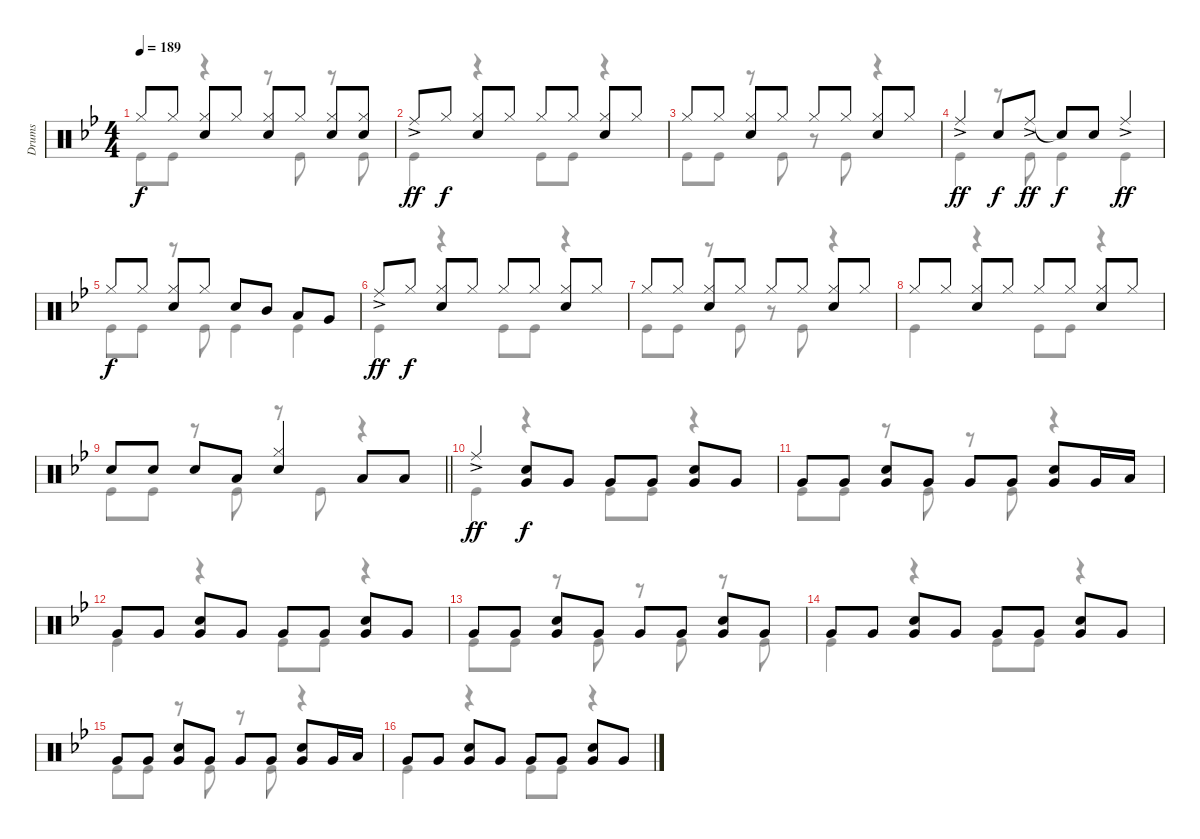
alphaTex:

\track ("Drums" "Drums") {instrument percussion}
\staff {score}
\articulation defaults
\voice
\ts (4 4)
\tempo 189
\clef neutral
\ks bb "Hi-Hat (closed)".8{dy f} "Hi-Hat (closed)".8
("Hi-Hat (closed)" "Snare (hit) 2").8 "Hi-Hat (closed)".8 ("Hi-Hat (closed)" "Snare (hit) 2").8 "Hi-Hat (closed)".8 ("Hi-Hat (closed)" "Snare (hit) 2").8 ("Hi-Hat (closed)" "Snare (hit) 2").8 |
"Ride (middle)"{ac}.8{dy ff} "Hi-Hat (closed)".8{dy f} ("Hi-Hat (closed)" "Snare (hit) 2").8 "Hi-Hat (closed)".8 "Hi-Hat (closed)".8 "Hi-Hat (closed)".8 ("Hi-Hat (closed)" "Snare (hit) 2").8 "Hi-Hat (closed)".8 |
"Hi-Hat (closed)".8 "Hi-Hat (closed)".8 ("Hi-Hat (closed)" "Snare (hit) 2").8 "Hi-Hat (closed)".8 "Hi-Hat (closed)".8 "Hi-Hat (closed)".8 ("Hi-Hat (closed)" "Snare (hit) 2").8 "Hi-Hat (closed)".8 |
"Ride (middle)"{ac}.4{dy ff} "Snare (hit) 2".8{dy f} "Ride (middle)"{ac}.8{dy ff} "Snare (hit)"{t}.8{dy f} "Snare (hit) 2".8 "Ride (middle)"{ac}.4{dy ff} |
"Hi-Hat (closed)".8{dy f} "Hi-Hat (closed)".8 ("Hi-Hat (closed)" "Snare (hit) 2").8 "Hi-Hat (closed)".8 "Snare (hit) 2".8 "Mid Tom (hit)".8 "Low Tom (hit)".8 "Very Low Tom (hit)".8 |
"Ride (middle)"{ac}.8{dy ff} "Hi-Hat (closed)".8{dy f} ("Hi-Hat (closed)" "Snare (hit) 2").8 "Hi-Hat (closed)".8 "Hi-Hat (closed)".8 "Hi-Hat (closed)".8 ("Hi-Hat (closed)" "Snare (hit) 2").8 "Hi-Hat (closed)".8 |
"Hi-Hat (closed)".8 "Hi-Hat (closed)".8 ("Hi-Hat (closed)" "Snare (hit) 2").8 "Hi-Hat (closed)".8 "Hi-Hat (closed)".8 "Hi-Hat (closed)".8 ("Hi-Hat (closed)" "Snare (hit) 2").8 "Hi-Hat (closed)".8 |
"Hi-Hat (closed)".8 "Hi-Hat (closed)".8 ("Hi-Hat (closed)" "Snare (hit) 2").8 "Hi-Hat (closed)".8 "Hi-Hat (closed)".8 "Hi-Hat (closed)".8 ("Hi-Hat (closed)" "Snare (hit) 2").8 "Hi-Hat (closed)".8 |
\barLineRight lightlight "Snare (hit) 2".8 "Snare (hit) 2".8 "Snare (hit) 2".8 "Low Tom (hit)".8
("Hi-Hat (closed)" "Snare (hit) 2").4 "Low Tom (hit)".8 "Low Tom (hit)".8 |
"Ride (middle)"{ac}.4{dy ff} ("Snare (hit) 2" "Very Low Tom (hit)").8{dy f} "Very Low Tom (hit)".8 "Very Low Tom (hit)".8 "Very Low Tom (hit)".8 ("Snare (hit) 2" "Very Low Tom (hit)").8 "Very Low Tom (hit)".8 |
"Very Low Tom (hit)".8 "Very Low Tom (hit)".8 ("Snare (hit) 2" "Very Low Tom (hit)").8 "Very Low Tom (hit)".8 "Very Low Tom (hit)".8 "Very Low Tom (hit)".8 ("Snare (hit) 2" "Very Low Tom (hit)").8 "Very Low Tom (hit)".16 "Low Tom (hit)".16 |
"Very Low Tom (hit)".8 "Very Low Tom (hit)".8 ("Snare (hit) 2" "Very Low Tom (hit)").8 "Very Low Tom (hit)".8 "Very Low Tom (hit)".8 "Very Low Tom (hit)".8 ("Snare (hit) 2" "Very Low Tom (hit)").8 "Very Low Tom (hit)".8 |
"Very Low Tom (hit)".8 "Very Low Tom (hit)".8 ("Snare (hit) 2" "Very Low Tom (hit)").8 "Very Low Tom (hit)".8 "Very Low Tom (hit)".8 "Very Low Tom (hit)".8 ("Snare (hit) 2" "Very Low Tom (hit)").8 "Very Low Tom (hit)".8 |
"Very Low Tom (hit)".8 "Very Low Tom (hit)".8 ("Snare (hit) 2" "Very Low Tom (hit)").8 "Very Low Tom (hit)".8 "Very Low Tom (hit)".8 "Very Low Tom (hit)".8 ("Snare (hit) 2" "Very Low Tom (hit)").8 "Very Low Tom (hit)".8 |
"Very Low Tom (hit)".8 "Very Low Tom (hit)".8 ("Snare (hit) 2" "Very Low Tom (hit)").8 "Very Low Tom (hit)".8 "Very Low Tom (hit)".8 "Very Low Tom (hit)".8 ("Snare (hit) 2" "Very Low Tom (hit)").8 "Very Low Tom (hit)".16 "Low Tom (hit)".16 |
"Very Low Tom (hit)".8 "Very Low Tom (hit)".8 ("Snare (hit) 2" "Very Low Tom (hit)").8 "Very Low Tom (hit)".8 "Very Low Tom (hit)".8 "Very Low Tom (hit)".8 ("Snare (hit) 2" "Very Low Tom (hit)").8 "Very Low Tom (hit)".8
\voice
\clef neutral
\ottava regular
\simile none
\ks bb "Kick (hit)".8{dy f} "Kick (hit)".8
r.4 r.8 "Kick (hit)".8 r.8 "Kick (hit)".8 |
"Kick (hit)".4 r.4 "Kick (hit)".8 "Kick (hit)".8 r.4 |
"Kick (hit)".8 "Kick (hit)".8 r.8 "Kick (hit)".8 r.8 "Kick (hit)".8 r.4 |
"Kick (hit)".4 r.8 "Kick (hit)".8 "Kick (hit)".4 "Kick (hit)".4 |
"Kick (hit)".8 "Kick (hit)".8 r.8 "Kick (hit)".8 "Kick (hit)".4 "Kick (hit)".4 |
"Kick (hit)".4 r.4 "Kick (hit)".8 "Kick (hit)".8 r.4 |
"Kick (hit)".8 "Kick (hit)".8 r.8 "Kick (hit)".8 r.8 "Kick (hit)".8 r.4 |
"Kick (hit)".4 r.4 "Kick (hit)".8 "Kick (hit)".8 r.4 |
\barLineRight lightlight "Kick (hit)".8 "Kick (hit)".8
r.8 "Kick (hit)".8 r.8 "Kick (hit)".8 r.4 |
"Kick (hit)".4 r.4 "Kick (hit)".8 "Kick (hit)".8 r.4 |
"Kick (hit)".8 "Kick (hit)".8 r.8 "Kick (hit)".8 r.8 "Kick (hit)".8 r.4 |
"Kick (hit)".4 r.4 "Kick (hit)".8 "Kick (hit)".8 r.4 |
"Kick (hit)".8 "Kick (hit)".8 r.8 "Kick (hit)".8 r.8 "Kick (hit)".8 r.8 "Kick (hit)".8 |
"Kick (hit)".4 r.4 "Kick (hit)".8 "Kick (hit)".8 r.4 |
"Kick (hit)".8 "Kick (hit)".8 r.8 "Kick (hit)".8 r.8 "Kick (hit)".8 r.4 |
"Kick (hit)".4 r.4 "Kick (hit)".8 "Kick (hit)".8 r.4
